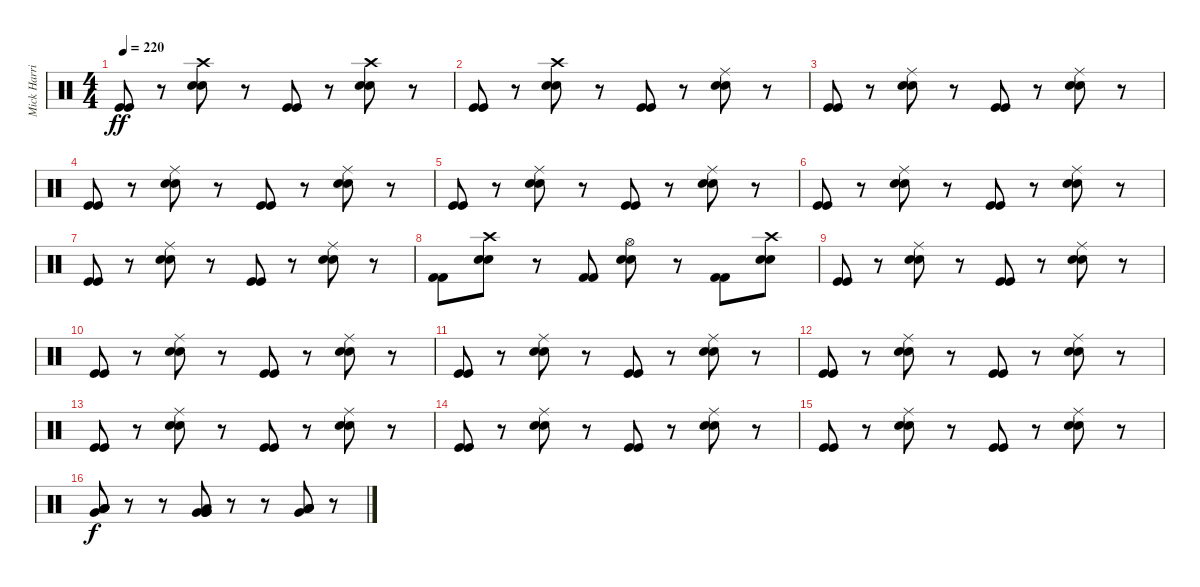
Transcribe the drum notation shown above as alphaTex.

\track ("Mick Harris" "Mick Harri") {instrument percussion}
\staff {score}
\articulation defaults
\ts (4 4)
\tempo 220
\clef neutral
\ks c
("Kick (hit)" "Kick (hit)").8{dy ff} r.8 ("Crash high (hit)" "Snare (hit) 2" "Snare (hit) 2").8 r.8 ("Kick (hit)" "Kick (hit)").8 r.8 ("Crash high (hit)" "Snare (hit) 2" "Snare (hit) 2").8 r.8 |
("Kick (hit)" "Kick (hit)").8 r.8 ("Crash high (hit)" "Snare (hit) 2" "Snare (hit) 2").8 r.8 ("Kick (hit)" "Kick (hit)").8 r.8 ("Ride (middle)" "Snare (hit) 2" "Snare (hit) 2").8 r.8 |
("Kick (hit)" "Kick (hit)").8 r.8 ("Ride (middle)" "Snare (hit) 2" "Snare (hit) 2").8 r.8 ("Kick (hit)" "Kick (hit)").8 r.8 ("Ride (middle)" "Snare (hit) 2" "Snare (hit) 2").8 r.8 |
("Kick (hit)" "Kick (hit)").8 r.8 ("Ride (middle)" "Snare (hit) 2" "Snare (hit) 2").8 r.8 ("Kick (hit)" "Kick (hit)").8 r.8 ("Ride (middle)" "Snare (hit) 2" "Snare (hit) 2").8 r.8 |
("Kick (hit)" "Kick (hit)").8 r.8 ("Ride (middle)" "Snare (hit) 2" "Snare (hit) 2").8 r.8 ("Kick (hit)" "Kick (hit)").8 r.8 ("Ride (middle)" "Snare (hit) 2" "Snare (hit) 2").8 r.8 |
("Kick (hit)" "Kick (hit)").8 r.8 ("Ride (middle)" "Snare (hit) 2" "Snare (hit) 2").8 r.8 ("Kick (hit)" "Kick (hit)").8 r.8 ("Ride (middle)" "Snare (hit) 2" "Snare (hit) 2").8 r.8 |
("Kick (hit)" "Kick (hit)").8 r.8 ("Ride (middle)" "Snare (hit) 2" "Snare (hit) 2").8 r.8 ("Kick (hit)" "Kick (hit)").8 r.8 ("Ride (middle)" "Snare (hit) 2" "Snare (hit) 2").8 r.8 |
("Kick (hit) 2" "Kick (hit) 2").8 ("Crash high (hit)" "Snare (hit) 2" "Snare (hit) 2").8 r.8 ("Kick (hit) 2" "Kick (hit) 2").8 ("Hi-Hat (open)" "Snare (hit) 2" "Snare (hit) 2").8 r.8 ("Kick (hit) 2" "Kick (hit) 2").8 ("Crash high (hit)" "Snare (hit) 2" "Snare (hit) 2").8 |
("Kick (hit)" "Kick (hit)").8 r.8 ("Ride (middle)" "Snare (hit) 2" "Snare (hit) 2").8 r.8 ("Kick (hit)" "Kick (hit)").8 r.8 ("Ride (middle)" "Snare (hit) 2" "Snare (hit) 2").8 r.8 |
("Kick (hit)" "Kick (hit)").8 r.8 ("Ride (middle)" "Snare (hit) 2" "Snare (hit) 2").8 r.8 ("Kick (hit)" "Kick (hit)").8 r.8 ("Ride (middle)" "Snare (hit) 2" "Snare (hit) 2").8 r.8 |
("Kick (hit)" "Kick (hit)").8 r.8 ("Ride (middle)" "Snare (hit) 2" "Snare (hit) 2").8 r.8 ("Kick (hit)" "Kick (hit)").8 r.8 ("Ride (middle)" "Snare (hit) 2" "Snare (hit) 2").8 r.8 |
("Kick (hit)" "Kick (hit)").8 r.8 ("Ride (middle)" "Snare (hit) 2" "Snare (hit) 2").8 r.8 ("Kick (hit)" "Kick (hit)").8 r.8 ("Ride (middle)" "Snare (hit) 2" "Snare (hit) 2").8 r.8 |
("Kick (hit)" "Kick (hit)").8 r.8 ("Ride (middle)" "Snare (hit) 2" "Snare (hit) 2").8 r.8 ("Kick (hit)" "Kick (hit)").8 r.8 ("Ride (middle)" "Snare (hit) 2" "Snare (hit) 2").8 r.8 |
("Kick (hit)" "Kick (hit)").8 r.8 ("Ride (middle)" "Snare (hit) 2" "Snare (hit) 2").8 r.8 ("Kick (hit)" "Kick (hit)").8 r.8 ("Ride (middle)" "Snare (hit) 2" "Snare (hit) 2").8 r.8 |
("Kick (hit)" "Kick (hit)").8 r.8 ("Ride (middle)" "Snare (hit) 2" "Snare (hit) 2").8 r.8 ("Kick (hit)" "Kick (hit)").8 r.8 ("Ride (middle)" "Snare (hit) 2" "Snare (hit) 2").8 r.8 |
("Low Floor Tom (hit)" "Low Tom (hit)" "Low Tom (hit)" "Very Low Tom (hit)").8{dy f volume 16} r.8 r.8 ("Low Floor Tom (hit)" "Very Low Tom (hit)" "Very Low Tom (hit)" "Very Low Tom (hit)").8{volume 16} r.8 r.8 ("Low Floor Tom (hit)" "Low Tom (hit)" "Low Tom (hit)" "Very Low Tom (hit)").8{volume 16} r.8
